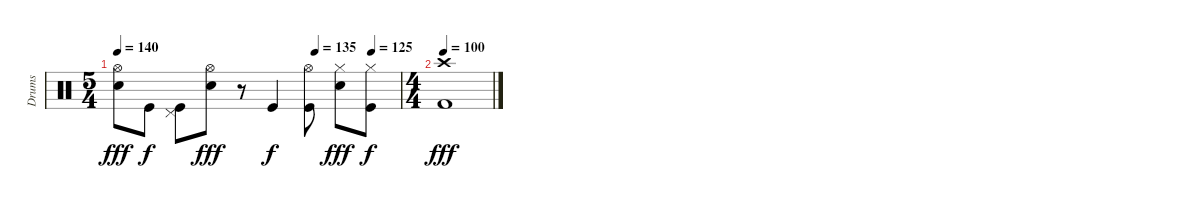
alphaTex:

\track ("Drums" "Drums") {instrument percussion}
\staff {score}
\articulation defaults
\ts (5 4)
\tempo 140
\tempo (135 0.7)
\tempo (125 0.9)
\clef neutral
\ks c
("Electric Snare (hit)" "Hi-Hat (open)").8{dy fff} "Kick (hit)".8{dy f} ("Pedal Hi-Hat (hit)" "Kick (hit)").8 ("Electric Snare (hit)" "Hi-Hat (open)").8{dy fff} r.8 "Kick (hit)".4{dy f} ("Hi-Hat (open)" "Kick (hit)").8 ("Electric Snare (hit)" "Hi-Hat (closed)").8{dy fff} ("Hi-Hat (closed)" "Kick (hit)").8{dy f} |
\ts (4 4)
\tempo 100
("Kick (hit) 2" "Crash high (hit)").1{dy fff}
